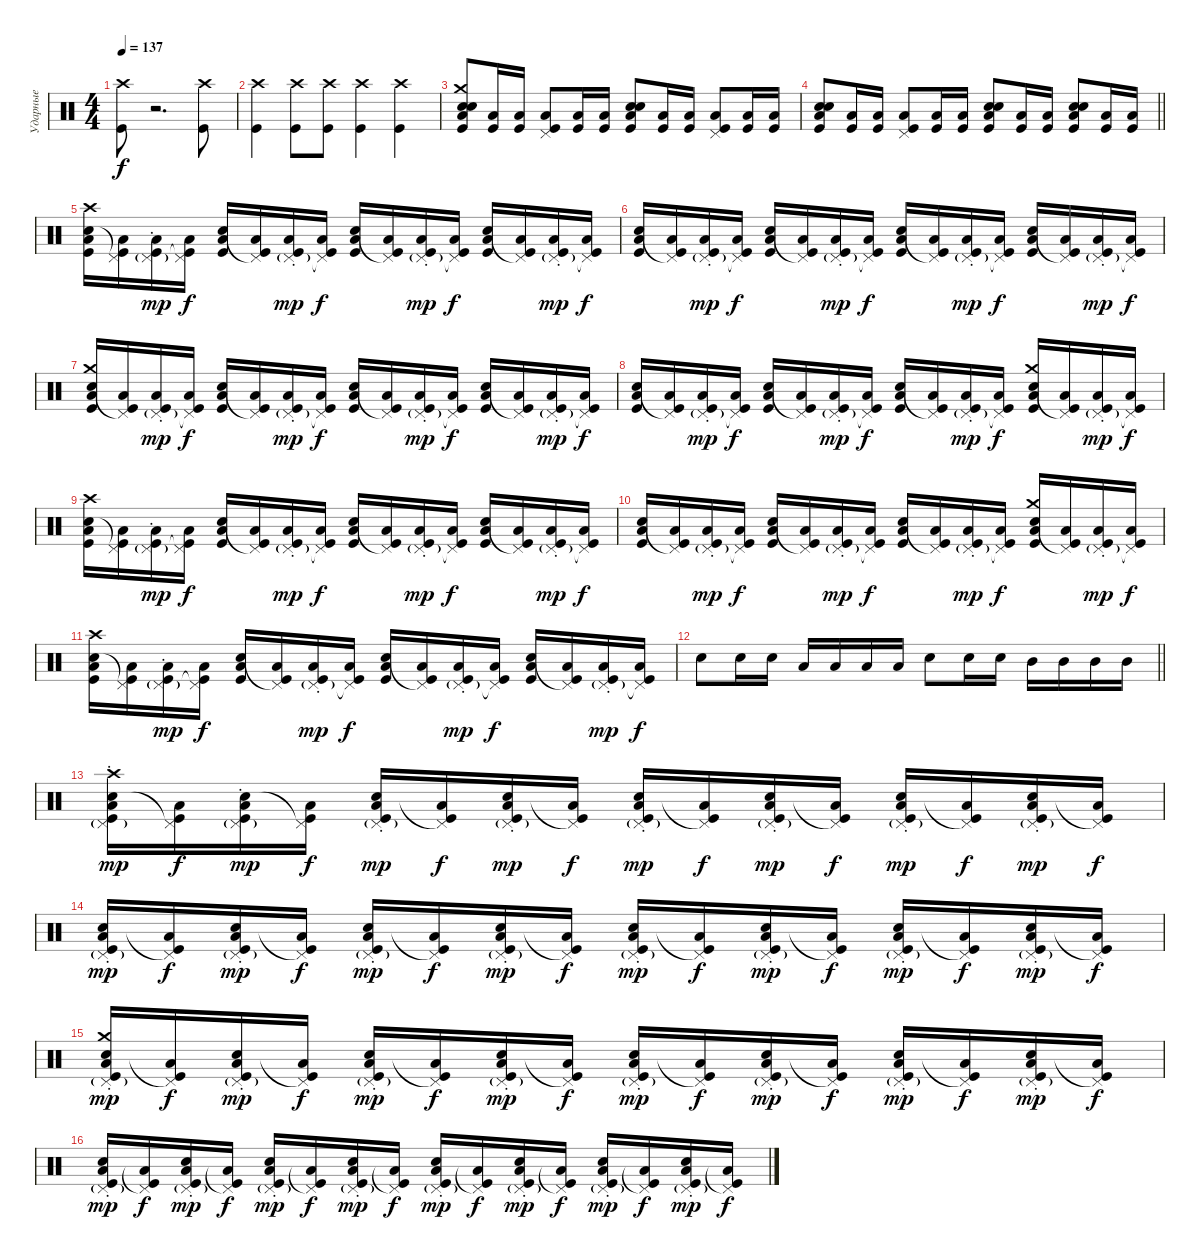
\track ("Ударные" "Ударные") {instrument percussion}
\staff {score}
\articulation defaults
\ts (4 4)
\tempo 137
\clef neutral
\ks c
("Crash high (hit)" "Kick (hit)").8{dy f} r.2{d} ("Crash high (hit)" "Kick (hit)").8 |
("Crash high (hit)" "Kick (hit)").4 ("Crash high (hit)" "Kick (hit)").8 ("Crash high (hit)" "Kick (hit)").8 ("Crash high (hit)" "Kick (hit)").4 ("Crash high (hit)" "Kick (hit)").4 |
("Crash medium (hit)" "Kick (hit)" "Low Tom (hit)" "Electric Snare (hit)" "Snare (hit) 2").8 ("Kick (hit)" "Low Tom (hit)").16 ("Kick (hit)" "Low Tom (hit)").16 ("Kick (hit)" "Low Tom (hit)" "Pedal Hi-Hat (hit)").8 ("Kick (hit)" "Low Tom (hit)").16 ("Kick (hit)" "Low Tom (hit)").16 ("Kick (hit)" "Low Tom (hit)" "Electric Snare (hit)" "Snare (hit) 2").8 ("Kick (hit)" "Low Tom (hit)").16 ("Kick (hit)" "Low Tom (hit)").16 ("Kick (hit)" "Low Tom (hit)" "Pedal Hi-Hat (hit)").8 ("Kick (hit)" "Low Tom (hit)").16 ("Kick (hit)" "Low Tom (hit)").16 |
\barLineRight lightlight
("Kick (hit)" "Low Tom (hit)" "Electric Snare (hit)" "Snare (hit) 2").8 ("Kick (hit)" "Low Tom (hit)").16 ("Kick (hit)" "Low Tom (hit)").16 ("Kick (hit)" "Low Tom (hit)" "Pedal Hi-Hat (hit)").8 ("Kick (hit)" "Low Tom (hit)").16 ("Kick (hit)" "Low Tom (hit)").16 ("Kick (hit)" "Low Tom (hit)" "Electric Snare (hit)" "Snare (hit) 2").8 ("Kick (hit)" "Low Tom (hit)").16 ("Kick (hit)" "Low Tom (hit)").16 ("Kick (hit)" "Low Tom (hit)" "Electric Snare (hit)" "Snare (hit) 2").8 ("Kick (hit)" "Low Tom (hit)").16 ("Kick (hit)" "Low Tom (hit)").16 |
("Kick (hit)" "Low Tom (hit)" "Electric Snare (hit)" "Crash high (hit)").16 ("Kick (hit)" "Low Tom (hit)" "Pedal Hi-Hat (hit)"{t}).16 ("Kick (hit)" "Low Tom (hit)" "Pedal Hi-Hat (hit)"{g st}).16{dy mp} ("Kick (hit)" "Low Tom (hit)" "Pedal Hi-Hat (hit)"{t}).16{dy f} ("Kick (hit)" "Low Tom (hit)" "Electric Snare (hit)").16 ("Kick (hit)" "Low Tom (hit)" "Pedal Hi-Hat (hit)"{t}).16 ("Kick (hit)" "Low Tom (hit)" "Pedal Hi-Hat (hit)"{g st}).16{dy mp} ("Kick (hit)" "Low Tom (hit)" "Pedal Hi-Hat (hit)"{t}).16{dy f} ("Kick (hit)" "Low Tom (hit)" "Electric Snare (hit)").16 ("Kick (hit)" "Low Tom (hit)" "Pedal Hi-Hat (hit)"{t}).16 ("Kick (hit)" "Low Tom (hit)" "Pedal Hi-Hat (hit)"{g st}).16{dy mp} ("Kick (hit)" "Low Tom (hit)" "Pedal Hi-Hat (hit)"{t}).16{dy f} ("Kick (hit)" "Low Tom (hit)" "Electric Snare (hit)").16 ("Kick (hit)" "Low Tom (hit)" "Pedal Hi-Hat (hit)"{t}).16 ("Kick (hit)" "Low Tom (hit)" "Pedal Hi-Hat (hit)"{g st}).16{dy mp} ("Kick (hit)" "Low Tom (hit)" "Pedal Hi-Hat (hit)"{t}).16{dy f} |
("Kick (hit)" "Low Tom (hit)" "Electric Snare (hit)").16 ("Kick (hit)" "Low Tom (hit)" "Pedal Hi-Hat (hit)"{t}).16 ("Kick (hit)" "Low Tom (hit)" "Pedal Hi-Hat (hit)"{g st}).16{dy mp} ("Kick (hit)" "Low Tom (hit)" "Pedal Hi-Hat (hit)"{t}).16{dy f} ("Kick (hit)" "Low Tom (hit)" "Electric Snare (hit)").16 ("Kick (hit)" "Low Tom (hit)" "Pedal Hi-Hat (hit)"{t}).16 ("Kick (hit)" "Low Tom (hit)" "Pedal Hi-Hat (hit)"{g st}).16{dy mp} ("Kick (hit)" "Low Tom (hit)" "Pedal Hi-Hat (hit)"{t}).16{dy f} ("Kick (hit)" "Low Tom (hit)" "Electric Snare (hit)").16 ("Kick (hit)" "Low Tom (hit)" "Pedal Hi-Hat (hit)"{t}).16 ("Kick (hit)" "Low Tom (hit)" "Pedal Hi-Hat (hit)"{g st}).16{dy mp} ("Kick (hit)" "Low Tom (hit)" "Pedal Hi-Hat (hit)"{t}).16{dy f} ("Kick (hit)" "Low Tom (hit)" "Electric Snare (hit)").16 ("Kick (hit)" "Low Tom (hit)" "Pedal Hi-Hat (hit)"{t}).16 ("Kick (hit)" "Low Tom (hit)" "Pedal Hi-Hat (hit)"{g st}).16{dy mp} ("Kick (hit)" "Low Tom (hit)" "Pedal Hi-Hat (hit)"{t}).16{dy f} |
("Kick (hit)" "Low Tom (hit)" "Electric Snare (hit)" "Crash medium (hit)").16 ("Kick (hit)" "Low Tom (hit)" "Pedal Hi-Hat (hit)"{t}).16 ("Kick (hit)" "Low Tom (hit)" "Pedal Hi-Hat (hit)"{g st}).16{dy mp} ("Kick (hit)" "Low Tom (hit)" "Pedal Hi-Hat (hit)"{t}).16{dy f} ("Kick (hit)" "Low Tom (hit)" "Electric Snare (hit)").16 ("Kick (hit)" "Low Tom (hit)" "Pedal Hi-Hat (hit)"{t}).16 ("Kick (hit)" "Low Tom (hit)" "Pedal Hi-Hat (hit)"{g st}).16{dy mp} ("Kick (hit)" "Low Tom (hit)" "Pedal Hi-Hat (hit)"{t}).16{dy f} ("Kick (hit)" "Low Tom (hit)" "Electric Snare (hit)").16 ("Kick (hit)" "Low Tom (hit)" "Pedal Hi-Hat (hit)"{t}).16 ("Kick (hit)" "Low Tom (hit)" "Pedal Hi-Hat (hit)"{g st}).16{dy mp} ("Kick (hit)" "Low Tom (hit)" "Pedal Hi-Hat (hit)"{t}).16{dy f} ("Kick (hit)" "Low Tom (hit)" "Electric Snare (hit)").16 ("Kick (hit)" "Low Tom (hit)" "Pedal Hi-Hat (hit)"{t}).16 ("Kick (hit)" "Low Tom (hit)" "Pedal Hi-Hat (hit)"{g st}).16{dy mp} ("Kick (hit)" "Low Tom (hit)" "Pedal Hi-Hat (hit)"{t}).16{dy f} |
("Kick (hit)" "Low Tom (hit)" "Electric Snare (hit)").16 ("Kick (hit)" "Low Tom (hit)" "Pedal Hi-Hat (hit)"{t}).16 ("Kick (hit)" "Low Tom (hit)" "Pedal Hi-Hat (hit)"{g st}).16{dy mp} ("Kick (hit)" "Low Tom (hit)" "Pedal Hi-Hat (hit)"{t}).16{dy f} ("Kick (hit)" "Low Tom (hit)" "Electric Snare (hit)").16 ("Kick (hit)" "Low Tom (hit)" "Pedal Hi-Hat (hit)"{t}).16 ("Kick (hit)" "Low Tom (hit)" "Pedal Hi-Hat (hit)"{g st}).16{dy mp} ("Kick (hit)" "Low Tom (hit)" "Pedal Hi-Hat (hit)"{t}).16{dy f} ("Kick (hit)" "Low Tom (hit)" "Electric Snare (hit)").16 ("Kick (hit)" "Low Tom (hit)" "Pedal Hi-Hat (hit)"{t}).16 ("Kick (hit)" "Low Tom (hit)" "Pedal Hi-Hat (hit)"{g st}).16{dy mp} ("Kick (hit)" "Low Tom (hit)" "Pedal Hi-Hat (hit)"{t}).16{dy f} ("Kick (hit)" "Low Tom (hit)" "Electric Snare (hit)" "Crash medium (hit)").16 ("Kick (hit)" "Low Tom (hit)" "Pedal Hi-Hat (hit)"{t}).16 ("Kick (hit)" "Low Tom (hit)" "Pedal Hi-Hat (hit)"{g st}).16{dy mp} ("Kick (hit)" "Low Tom (hit)" "Pedal Hi-Hat (hit)"{t}).16{dy f} |
("Kick (hit)" "Low Tom (hit)" "Electric Snare (hit)" "Crash high (hit)").16 ("Kick (hit)" "Low Tom (hit)" "Pedal Hi-Hat (hit)"{t}).16 ("Kick (hit)" "Low Tom (hit)" "Pedal Hi-Hat (hit)"{g st}).16{dy mp} ("Kick (hit)" "Low Tom (hit)" "Pedal Hi-Hat (hit)"{t}).16{dy f} ("Kick (hit)" "Low Tom (hit)" "Electric Snare (hit)").16 ("Kick (hit)" "Low Tom (hit)" "Pedal Hi-Hat (hit)"{t}).16 ("Kick (hit)" "Low Tom (hit)" "Pedal Hi-Hat (hit)"{g st}).16{dy mp} ("Kick (hit)" "Low Tom (hit)" "Pedal Hi-Hat (hit)"{t}).16{dy f} ("Kick (hit)" "Low Tom (hit)" "Electric Snare (hit)").16 ("Kick (hit)" "Low Tom (hit)" "Pedal Hi-Hat (hit)"{t}).16 ("Kick (hit)" "Low Tom (hit)" "Pedal Hi-Hat (hit)"{g st}).16{dy mp} ("Kick (hit)" "Low Tom (hit)" "Pedal Hi-Hat (hit)"{t}).16{dy f} ("Kick (hit)" "Low Tom (hit)" "Electric Snare (hit)").16 ("Kick (hit)" "Low Tom (hit)" "Pedal Hi-Hat (hit)"{t}).16 ("Kick (hit)" "Low Tom (hit)" "Pedal Hi-Hat (hit)"{g st}).16{dy mp} ("Kick (hit)" "Low Tom (hit)" "Pedal Hi-Hat (hit)"{t}).16{dy f} |
("Kick (hit)" "Low Tom (hit)" "Electric Snare (hit)").16 ("Kick (hit)" "Low Tom (hit)" "Pedal Hi-Hat (hit)"{t}).16 ("Kick (hit)" "Low Tom (hit)" "Pedal Hi-Hat (hit)"{g st}).16{dy mp} ("Kick (hit)" "Low Tom (hit)" "Pedal Hi-Hat (hit)"{t}).16{dy f} ("Kick (hit)" "Low Tom (hit)" "Electric Snare (hit)").16 ("Kick (hit)" "Low Tom (hit)" "Pedal Hi-Hat (hit)"{t}).16 ("Kick (hit)" "Low Tom (hit)" "Pedal Hi-Hat (hit)"{g st}).16{dy mp} ("Kick (hit)" "Low Tom (hit)" "Pedal Hi-Hat (hit)"{t}).16{dy f} ("Kick (hit)" "Low Tom (hit)" "Electric Snare (hit)").16 ("Kick (hit)" "Low Tom (hit)" "Pedal Hi-Hat (hit)"{t}).16 ("Kick (hit)" "Low Tom (hit)" "Pedal Hi-Hat (hit)"{g st}).16{dy mp} ("Kick (hit)" "Low Tom (hit)" "Pedal Hi-Hat (hit)"{t}).16{dy f} ("Kick (hit)" "Low Tom (hit)" "Electric Snare (hit)" "Crash medium (hit)").16 ("Kick (hit)" "Low Tom (hit)" "Pedal Hi-Hat (hit)"{t}).16 ("Kick (hit)" "Low Tom (hit)" "Pedal Hi-Hat (hit)"{g st}).16{dy mp} ("Kick (hit)" "Low Tom (hit)" "Pedal Hi-Hat (hit)"{t}).16{dy f} |
("Kick (hit)" "Low Tom (hit)" "Electric Snare (hit)" "Crash high (hit)").16 ("Kick (hit)" "Low Tom (hit)" "Pedal Hi-Hat (hit)"{t}).16 ("Kick (hit)" "Low Tom (hit)" "Pedal Hi-Hat (hit)"{g st}).16{dy mp} ("Kick (hit)" "Low Tom (hit)" "Pedal Hi-Hat (hit)"{t}).16{dy f} ("Kick (hit)" "Low Tom (hit)" "Electric Snare (hit)").16 ("Kick (hit)" "Low Tom (hit)" "Pedal Hi-Hat (hit)"{t}).16 ("Kick (hit)" "Low Tom (hit)" "Pedal Hi-Hat (hit)"{g st}).16{dy mp} ("Kick (hit)" "Low Tom (hit)" "Pedal Hi-Hat (hit)"{t}).16{dy f} ("Kick (hit)" "Low Tom (hit)" "Electric Snare (hit)").16 ("Kick (hit)" "Low Tom (hit)" "Pedal Hi-Hat (hit)"{t}).16 ("Kick (hit)" "Low Tom (hit)" "Pedal Hi-Hat (hit)"{g st}).16{dy mp} ("Kick (hit)" "Low Tom (hit)" "Pedal Hi-Hat (hit)"{t}).16{dy f} ("Kick (hit)" "Low Tom (hit)" "Electric Snare (hit)").16 ("Kick (hit)" "Low Tom (hit)" "Pedal Hi-Hat (hit)"{t}).16 ("Kick (hit)" "Low Tom (hit)" "Pedal Hi-Hat (hit)"{g st}).16{dy mp} ("Kick (hit)" "Low Tom (hit)" "Pedal Hi-Hat (hit)"{t}).16{dy f} |
\barLineRight lightlight "Electric Snare (hit)".8 "Electric Snare (hit)".16 "Electric Snare (hit)".16 "Low Tom (hit)".16 "Low Tom (hit)".16 "Low Tom (hit)".16 "Low Tom (hit)".16 "Electric Snare (hit)".8 "Electric Snare (hit)".16 "Electric Snare (hit)".16 "Mid Tom (hit)".16 "Mid Tom (hit)".16 "Mid Tom (hit)".16 "Mid Tom (hit)".16
|
("Kick (hit)" "Low Tom (hit)" "Electric Snare (hit)" "Crash high (hit)" "Pedal Hi-Hat (hit)"{g st}).16{dy mp} ("Kick (hit)" "Low Tom (hit)" "Pedal Hi-Hat (hit)"{t}).16{dy f} ("Kick (hit)" "Low Tom (hit)" "Electric Snare (hit)" "Pedal Hi-Hat (hit)"{g st}).16{dy mp} ("Kick (hit)" "Low Tom (hit)" "Pedal Hi-Hat (hit)"{t}).16{dy f} ("Kick (hit)" "Low Tom (hit)" "Electric Snare (hit)" "Pedal Hi-Hat (hit)"{g st}).16{dy mp} ("Kick (hit)" "Low Tom (hit)" "Pedal Hi-Hat (hit)"{t}).16{dy f} ("Kick (hit)" "Low Tom (hit)" "Electric Snare (hit)" "Pedal Hi-Hat (hit)"{g st}).16{dy mp} ("Kick (hit)" "Low Tom (hit)" "Pedal Hi-Hat (hit)"{t}).16{dy f} ("Kick (hit)" "Low Tom (hit)" "Electric Snare (hit)" "Pedal Hi-Hat (hit)"{g st}).16{dy mp} ("Kick (hit)" "Low Tom (hit)" "Pedal Hi-Hat (hit)"{t}).16{dy f} ("Kick (hit)" "Low Tom (hit)" "Electric Snare (hit)" "Pedal Hi-Hat (hit)"{g st}).16{dy mp} ("Kick (hit)" "Low Tom (hit)" "Pedal Hi-Hat (hit)"{t}).16{dy f} ("Kick (hit)" "Low Tom (hit)" "Electric Snare (hit)" "Pedal Hi-Hat (hit)"{g st}).16{dy mp} ("Kick (hit)" "Low Tom (hit)" "Pedal Hi-Hat (hit)"{t}).16{dy f} ("Kick (hit)" "Low Tom (hit)" "Electric Snare (hit)" "Pedal Hi-Hat (hit)"{g st}).16{dy mp} ("Kick (hit)" "Low Tom (hit)" "Pedal Hi-Hat (hit)"{t}).16{dy f} |
("Kick (hit)" "Low Tom (hit)" "Electric Snare (hit)" "Pedal Hi-Hat (hit)"{g st}).16{dy mp} ("Kick (hit)" "Low Tom (hit)" "Pedal Hi-Hat (hit)"{t}).16{dy f} ("Kick (hit)" "Low Tom (hit)" "Electric Snare (hit)" "Pedal Hi-Hat (hit)"{g st}).16{dy mp} ("Kick (hit)" "Low Tom (hit)" "Pedal Hi-Hat (hit)"{t}).16{dy f} ("Kick (hit)" "Low Tom (hit)" "Electric Snare (hit)" "Pedal Hi-Hat (hit)"{g st}).16{dy mp} ("Kick (hit)" "Low Tom (hit)" "Pedal Hi-Hat (hit)"{t}).16{dy f} ("Kick (hit)" "Low Tom (hit)" "Electric Snare (hit)" "Pedal Hi-Hat (hit)"{g st}).16{dy mp} ("Kick (hit)" "Low Tom (hit)" "Pedal Hi-Hat (hit)"{t}).16{dy f} ("Kick (hit)" "Low Tom (hit)" "Electric Snare (hit)" "Pedal Hi-Hat (hit)"{g st}).16{dy mp} ("Kick (hit)" "Low Tom (hit)" "Pedal Hi-Hat (hit)"{t}).16{dy f} ("Kick (hit)" "Low Tom (hit)" "Electric Snare (hit)" "Pedal Hi-Hat (hit)"{g st}).16{dy mp} ("Kick (hit)" "Low Tom (hit)" "Pedal Hi-Hat (hit)"{t}).16{dy f} ("Kick (hit)" "Low Tom (hit)" "Electric Snare (hit)" "Pedal Hi-Hat (hit)"{g st}).16{dy mp} ("Kick (hit)" "Low Tom (hit)" "Pedal Hi-Hat (hit)"{t}).16{dy f} ("Kick (hit)" "Low Tom (hit)" "Electric Snare (hit)" "Pedal Hi-Hat (hit)"{g st}).16{dy mp} ("Kick (hit)" "Low Tom (hit)" "Pedal Hi-Hat (hit)"{t}).16{dy f} |
("Kick (hit)" "Low Tom (hit)" "Electric Snare (hit)" "Crash medium (hit)" "Pedal Hi-Hat (hit)"{g st}).16{dy mp} ("Kick (hit)" "Low Tom (hit)" "Pedal Hi-Hat (hit)"{t}).16{dy f} ("Kick (hit)" "Low Tom (hit)" "Electric Snare (hit)" "Pedal Hi-Hat (hit)"{g st}).16{dy mp} ("Kick (hit)" "Low Tom (hit)" "Pedal Hi-Hat (hit)"{t}).16{dy f} ("Kick (hit)" "Low Tom (hit)" "Electric Snare (hit)" "Pedal Hi-Hat (hit)"{g st}).16{dy mp} ("Kick (hit)" "Low Tom (hit)" "Pedal Hi-Hat (hit)"{t}).16{dy f} ("Kick (hit)" "Low Tom (hit)" "Electric Snare (hit)" "Pedal Hi-Hat (hit)"{g st}).16{dy mp} ("Kick (hit)" "Low Tom (hit)" "Pedal Hi-Hat (hit)"{t}).16{dy f} ("Kick (hit)" "Low Tom (hit)" "Electric Snare (hit)" "Pedal Hi-Hat (hit)"{g st}).16{dy mp} ("Kick (hit)" "Low Tom (hit)" "Pedal Hi-Hat (hit)"{t}).16{dy f} ("Kick (hit)" "Low Tom (hit)" "Electric Snare (hit)" "Pedal Hi-Hat (hit)"{g st}).16{dy mp} ("Kick (hit)" "Low Tom (hit)" "Pedal Hi-Hat (hit)"{t}).16{dy f} ("Kick (hit)" "Low Tom (hit)" "Electric Snare (hit)" "Pedal Hi-Hat (hit)"{g st}).16{dy mp} ("Kick (hit)" "Low Tom (hit)" "Pedal Hi-Hat (hit)"{t}).16{dy f} ("Kick (hit)" "Low Tom (hit)" "Electric Snare (hit)" "Pedal Hi-Hat (hit)"{g st}).16{dy mp} ("Kick (hit)" "Low Tom (hit)" "Pedal Hi-Hat (hit)"{t}).16{dy f} |
("Kick (hit)" "Low Tom (hit)" "Electric Snare (hit)" "Pedal Hi-Hat (hit)"{g st}).16{dy mp} ("Kick (hit)" "Low Tom (hit)" "Pedal Hi-Hat (hit)"{t}).16{dy f} ("Kick (hit)" "Low Tom (hit)" "Electric Snare (hit)" "Pedal Hi-Hat (hit)"{g st}).16{dy mp} ("Kick (hit)" "Low Tom (hit)" "Pedal Hi-Hat (hit)"{t}).16{dy f} ("Kick (hit)" "Low Tom (hit)" "Electric Snare (hit)" "Pedal Hi-Hat (hit)"{g st}).16{dy mp} ("Kick (hit)" "Low Tom (hit)" "Pedal Hi-Hat (hit)"{t}).16{dy f} ("Kick (hit)" "Low Tom (hit)" "Electric Snare (hit)" "Pedal Hi-Hat (hit)"{g st}).16{dy mp} ("Kick (hit)" "Low Tom (hit)" "Pedal Hi-Hat (hit)"{t}).16{dy f} ("Kick (hit)" "Low Tom (hit)" "Electric Snare (hit)" "Pedal Hi-Hat (hit)"{g st}).16{dy mp} ("Kick (hit)" "Low Tom (hit)" "Pedal Hi-Hat (hit)"{t}).16{dy f} ("Kick (hit)" "Low Tom (hit)" "Electric Snare (hit)" "Pedal Hi-Hat (hit)"{g st}).16{dy mp} ("Kick (hit)" "Low Tom (hit)" "Pedal Hi-Hat (hit)"{t}).16{dy f} ("Kick (hit)" "Low Tom (hit)" "Electric Snare (hit)" "Pedal Hi-Hat (hit)"{g st}).16{dy mp} ("Kick (hit)" "Low Tom (hit)" "Pedal Hi-Hat (hit)"{t}).16{dy f} ("Kick (hit)" "Low Tom (hit)" "Electric Snare (hit)" "Pedal Hi-Hat (hit)"{g st}).16{dy mp} ("Kick (hit)" "Low Tom (hit)" "Pedal Hi-Hat (hit)"{t}).16{dy f}
